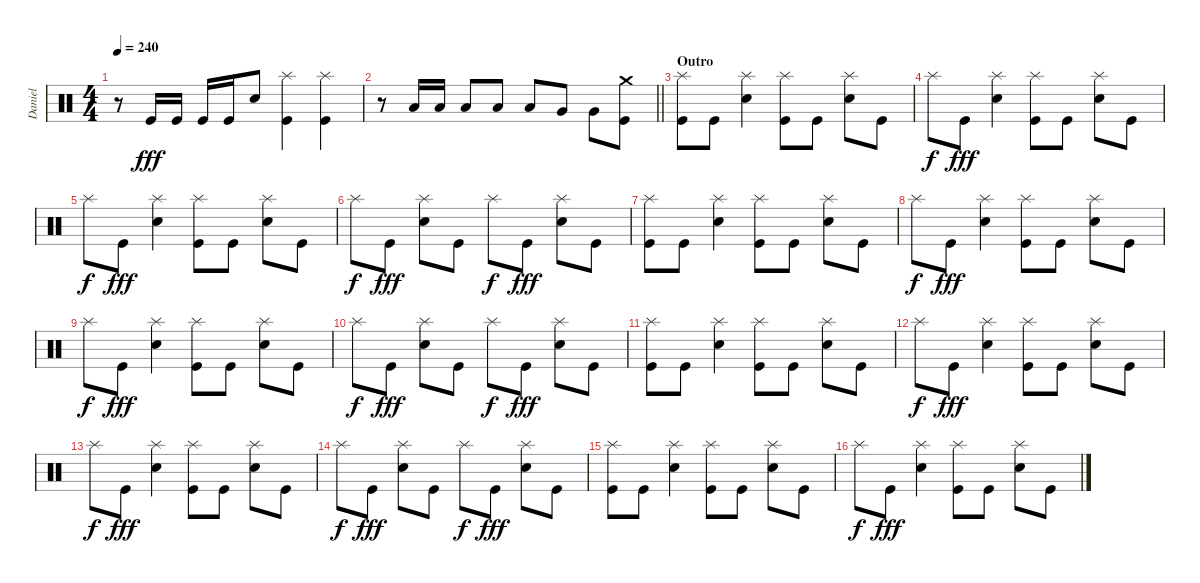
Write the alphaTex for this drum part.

\track ("Daniel" "Daniel") {instrument percussion}
\staff {score}
\articulation defaults
\ts (4 4)
\tempo 240
\clef neutral
\ks c
r.8{dy fff} "Kick (hit)".16 "Kick (hit)".16 "Kick (hit)".16 "Kick (hit)".16 "Electric Snare (hit)".8 ("Kick (hit)" "Splash (hit)").4 ("Kick (hit)" "Splash (hit)").4 |
\barLineRight lightlight
r.8 "Low Tom (hit)".16 "Low Tom (hit)".16 "Low Tom (hit)".8 "Low Tom (hit)".8 "Low Tom (hit)".8 "Very Low Tom (hit)".8 "Very Low Tom (hit)".8 ("Kick (hit)" "Crash medium (hit)").8 |
\section ("" "Outro")
("Kick (hit)" "Splash (hit)").8 "Kick (hit)".8 ("Electric Snare (hit)" "Splash (hit)").4 ("Kick (hit)" "Splash (hit)").8 "Kick (hit)".8 ("Electric Snare (hit)" "Splash (hit)").8 "Kick (hit)".8 |
"Splash (hit)".8{dy f} "Kick (hit)".8{dy fff} ("Electric Snare (hit)" "Splash (hit)").4 ("Kick (hit)" "Splash (hit)").8 "Kick (hit)".8 ("Electric Snare (hit)" "Splash (hit)").8 "Kick (hit)".8 |
"Splash (hit)".8{dy f} "Kick (hit)".8{dy fff} ("Electric Snare (hit)" "Splash (hit)").4 ("Kick (hit)" "Splash (hit)").8 "Kick (hit)".8 ("Electric Snare (hit)" "Splash (hit)").8 "Kick (hit)".8 |
"Splash (hit)".8{dy f} "Kick (hit)".8{dy fff} ("Electric Snare (hit)" "Splash (hit)").8 "Kick (hit)".8 "Splash (hit)".8{dy f} "Kick (hit)".8{dy fff} ("Electric Snare (hit)" "Splash (hit)").8 "Kick (hit)".8 |
("Kick (hit)" "Splash (hit)").8 "Kick (hit)".8 ("Electric Snare (hit)" "Splash (hit)").4 ("Kick (hit)" "Splash (hit)").8 "Kick (hit)".8 ("Electric Snare (hit)" "Splash (hit)").8 "Kick (hit)".8 |
"Splash (hit)".8{dy f} "Kick (hit)".8{dy fff} ("Electric Snare (hit)" "Splash (hit)").4 ("Kick (hit)" "Splash (hit)").8 "Kick (hit)".8 ("Electric Snare (hit)" "Splash (hit)").8 "Kick (hit)".8 |
"Splash (hit)".8{dy f} "Kick (hit)".8{dy fff} ("Electric Snare (hit)" "Splash (hit)").4 ("Kick (hit)" "Splash (hit)").8 "Kick (hit)".8 ("Electric Snare (hit)" "Splash (hit)").8 "Kick (hit)".8 |
"Splash (hit)".8{dy f} "Kick (hit)".8{dy fff} ("Electric Snare (hit)" "Splash (hit)").8 "Kick (hit)".8 "Splash (hit)".8{dy f} "Kick (hit)".8{dy fff} ("Electric Snare (hit)" "Splash (hit)").8 "Kick (hit)".8 |
("Kick (hit)" "Splash (hit)").8 "Kick (hit)".8 ("Electric Snare (hit)" "Splash (hit)").4 ("Kick (hit)" "Splash (hit)").8 "Kick (hit)".8 ("Electric Snare (hit)" "Splash (hit)").8 "Kick (hit)".8 |
"Splash (hit)".8{dy f} "Kick (hit)".8{dy fff} ("Electric Snare (hit)" "Splash (hit)").4 ("Kick (hit)" "Splash (hit)").8 "Kick (hit)".8 ("Electric Snare (hit)" "Splash (hit)").8 "Kick (hit)".8 |
"Splash (hit)".8{dy f} "Kick (hit)".8{dy fff} ("Electric Snare (hit)" "Splash (hit)").4 ("Kick (hit)" "Splash (hit)").8 "Kick (hit)".8 ("Electric Snare (hit)" "Splash (hit)").8 "Kick (hit)".8 |
"Splash (hit)".8{dy f} "Kick (hit)".8{dy fff} ("Electric Snare (hit)" "Splash (hit)").8 "Kick (hit)".8 "Splash (hit)".8{dy f} "Kick (hit)".8{dy fff} ("Electric Snare (hit)" "Splash (hit)").8 "Kick (hit)".8 |
("Kick (hit)" "Splash (hit)").8 "Kick (hit)".8 ("Electric Snare (hit)" "Splash (hit)").4 ("Kick (hit)" "Splash (hit)").8 "Kick (hit)".8 ("Electric Snare (hit)" "Splash (hit)").8 "Kick (hit)".8 |
"Splash (hit)".8{dy f} "Kick (hit)".8{dy fff} ("Electric Snare (hit)" "Splash (hit)").4 ("Kick (hit)" "Splash (hit)").8 "Kick (hit)".8 ("Electric Snare (hit)" "Splash (hit)").8 "Kick (hit)".8
